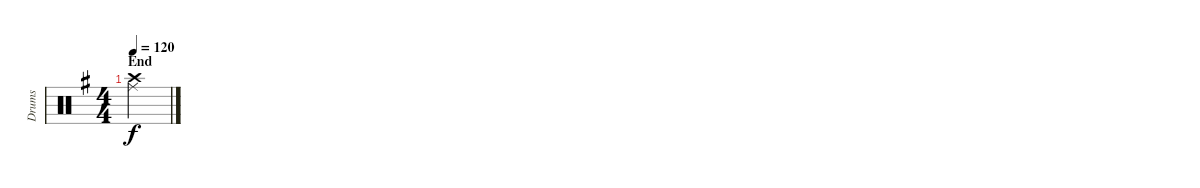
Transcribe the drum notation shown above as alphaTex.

\track ("Drums" "Drums") {instrument percussion}
\staff {score}
\articulation defaults
\ts (4 4)
\section ("" "End")
\tempo 120
\clef neutral
\ks g
("Crash high (hit)" "Ride (middle)").4{dy f}
